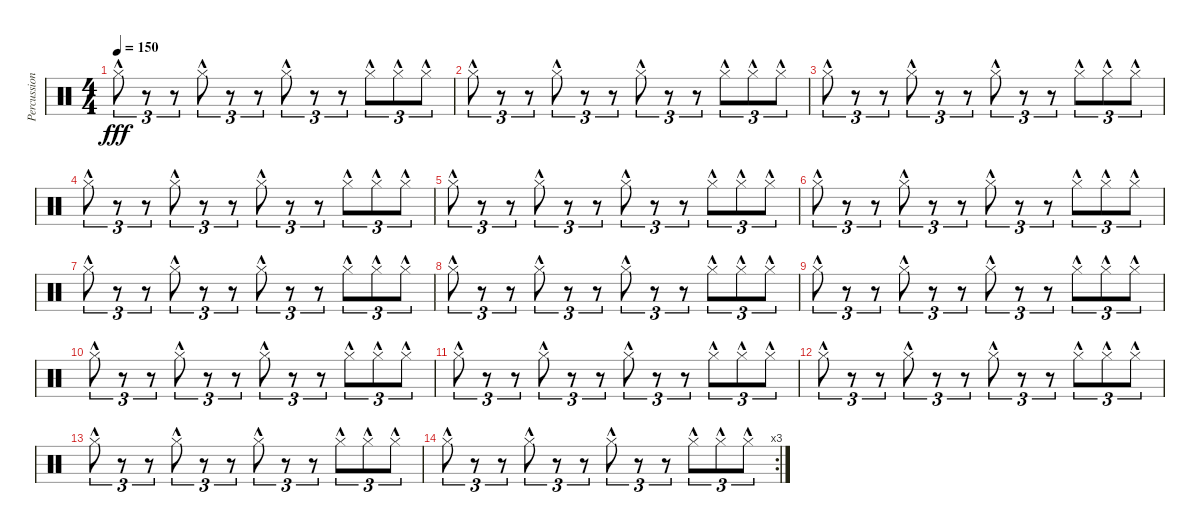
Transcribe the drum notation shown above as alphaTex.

\track ("Percussion" "Percussion") {instrument percussion}
\staff {score}
\articulation defaults
\ts (4 4)
\tempo 150
\clef neutral
\ks c "Hi-Hat (closed)"{hac}.8{tu (3 2) dy fff}
r.8{tu (3 2)} r.8{tu (3 2)} "Hi-Hat (closed)"{hac}.8{tu (3 2)} r.8{tu (3 2)} r.8{tu (3 2)} "Hi-Hat (closed)"{hac}.8{tu (3 2)} r.8{tu (3 2)} r.8{tu (3 2)} "Hi-Hat (closed)"{hac}.8{tu (3 2)} "Hi-Hat (closed)"{hac}.8{tu (3 2)} "Hi-Hat (closed)"{hac}.8{tu (3 2)} |
"Hi-Hat (closed)"{hac}.8{tu (3 2)} r.8{tu (3 2)} r.8{tu (3 2)} "Hi-Hat (closed)"{hac}.8{tu (3 2)} r.8{tu (3 2)} r.8{tu (3 2)} "Hi-Hat (closed)"{hac}.8{tu (3 2)} r.8{tu (3 2)} r.8{tu (3 2)} "Hi-Hat (closed)"{hac}.8{tu (3 2)} "Hi-Hat (closed)"{hac}.8{tu (3 2)} "Hi-Hat (closed)"{hac}.8{tu (3 2)} |
"Hi-Hat (closed)"{hac}.8{tu (3 2)} r.8{tu (3 2)} r.8{tu (3 2)} "Hi-Hat (closed)"{hac}.8{tu (3 2)} r.8{tu (3 2)} r.8{tu (3 2)} "Hi-Hat (closed)"{hac}.8{tu (3 2)} r.8{tu (3 2)} r.8{tu (3 2)} "Hi-Hat (closed)"{hac}.8{tu (3 2)} "Hi-Hat (closed)"{hac}.8{tu (3 2)} "Hi-Hat (closed)"{hac}.8{tu (3 2)} |
"Hi-Hat (closed)"{hac}.8{tu (3 2)} r.8{tu (3 2)} r.8{tu (3 2)} "Hi-Hat (closed)"{hac}.8{tu (3 2)} r.8{tu (3 2)} r.8{tu (3 2)} "Hi-Hat (closed)"{hac}.8{tu (3 2)} r.8{tu (3 2)} r.8{tu (3 2)} "Hi-Hat (closed)"{hac}.8{tu (3 2)} "Hi-Hat (closed)"{hac}.8{tu (3 2)} "Hi-Hat (closed)"{hac}.8{tu (3 2)} |
"Hi-Hat (closed)"{hac}.8{tu (3 2)} r.8{tu (3 2)} r.8{tu (3 2)} "Hi-Hat (closed)"{hac}.8{tu (3 2)} r.8{tu (3 2)} r.8{tu (3 2)} "Hi-Hat (closed)"{hac}.8{tu (3 2)} r.8{tu (3 2)} r.8{tu (3 2)} "Hi-Hat (closed)"{hac}.8{tu (3 2)} "Hi-Hat (closed)"{hac}.8{tu (3 2)} "Hi-Hat (closed)"{hac}.8{tu (3 2)} |
"Hi-Hat (closed)"{hac}.8{tu (3 2)} r.8{tu (3 2)} r.8{tu (3 2)} "Hi-Hat (closed)"{hac}.8{tu (3 2)} r.8{tu (3 2)} r.8{tu (3 2)} "Hi-Hat (closed)"{hac}.8{tu (3 2)} r.8{tu (3 2)} r.8{tu (3 2)} "Hi-Hat (closed)"{hac}.8{tu (3 2)} "Hi-Hat (closed)"{hac}.8{tu (3 2)} "Hi-Hat (closed)"{hac}.8{tu (3 2)} |
"Hi-Hat (closed)"{hac}.8{tu (3 2)} r.8{tu (3 2)} r.8{tu (3 2)} "Hi-Hat (closed)"{hac}.8{tu (3 2)} r.8{tu (3 2)} r.8{tu (3 2)} "Hi-Hat (closed)"{hac}.8{tu (3 2)} r.8{tu (3 2)} r.8{tu (3 2)} "Hi-Hat (closed)"{hac}.8{tu (3 2)} "Hi-Hat (closed)"{hac}.8{tu (3 2)} "Hi-Hat (closed)"{hac}.8{tu (3 2)} |
"Hi-Hat (closed)"{hac}.8{tu (3 2)} r.8{tu (3 2)} r.8{tu (3 2)} "Hi-Hat (closed)"{hac}.8{tu (3 2)} r.8{tu (3 2)} r.8{tu (3 2)} "Hi-Hat (closed)"{hac}.8{tu (3 2)} r.8{tu (3 2)} r.8{tu (3 2)} "Hi-Hat (closed)"{hac}.8{tu (3 2)} "Hi-Hat (closed)"{hac}.8{tu (3 2)} "Hi-Hat (closed)"{hac}.8{tu (3 2)} |
"Hi-Hat (closed)"{hac}.8{tu (3 2)} r.8{tu (3 2)} r.8{tu (3 2)} "Hi-Hat (closed)"{hac}.8{tu (3 2)} r.8{tu (3 2)} r.8{tu (3 2)} "Hi-Hat (closed)"{hac}.8{tu (3 2)} r.8{tu (3 2)} r.8{tu (3 2)} "Hi-Hat (closed)"{hac}.8{tu (3 2)} "Hi-Hat (closed)"{hac}.8{tu (3 2)} "Hi-Hat (closed)"{hac}.8{tu (3 2)} |
"Hi-Hat (closed)"{hac}.8{tu (3 2)} r.8{tu (3 2)} r.8{tu (3 2)} "Hi-Hat (closed)"{hac}.8{tu (3 2)} r.8{tu (3 2)} r.8{tu (3 2)} "Hi-Hat (closed)"{hac}.8{tu (3 2)} r.8{tu (3 2)} r.8{tu (3 2)} "Hi-Hat (closed)"{hac}.8{tu (3 2)} "Hi-Hat (closed)"{hac}.8{tu (3 2)} "Hi-Hat (closed)"{hac}.8{tu (3 2)} |
"Hi-Hat (closed)"{hac}.8{tu (3 2)} r.8{tu (3 2)} r.8{tu (3 2)} "Hi-Hat (closed)"{hac}.8{tu (3 2)} r.8{tu (3 2)} r.8{tu (3 2)} "Hi-Hat (closed)"{hac}.8{tu (3 2)} r.8{tu (3 2)} r.8{tu (3 2)} "Hi-Hat (closed)"{hac}.8{tu (3 2)} "Hi-Hat (closed)"{hac}.8{tu (3 2)} "Hi-Hat (closed)"{hac}.8{tu (3 2)} |
"Hi-Hat (closed)"{hac}.8{tu (3 2)} r.8{tu (3 2)} r.8{tu (3 2)} "Hi-Hat (closed)"{hac}.8{tu (3 2)} r.8{tu (3 2)} r.8{tu (3 2)} "Hi-Hat (closed)"{hac}.8{tu (3 2)} r.8{tu (3 2)} r.8{tu (3 2)} "Hi-Hat (closed)"{hac}.8{tu (3 2)} "Hi-Hat (closed)"{hac}.8{tu (3 2)} "Hi-Hat (closed)"{hac}.8{tu (3 2)} |
"Hi-Hat (closed)"{hac}.8{tu (3 2)} r.8{tu (3 2)} r.8{tu (3 2)} "Hi-Hat (closed)"{hac}.8{tu (3 2)} r.8{tu (3 2)} r.8{tu (3 2)} "Hi-Hat (closed)"{hac}.8{tu (3 2)} r.8{tu (3 2)} r.8{tu (3 2)} "Hi-Hat (closed)"{hac}.8{tu (3 2)} "Hi-Hat (closed)"{hac}.8{tu (3 2)} "Hi-Hat (closed)"{hac}.8{tu (3 2)} |
\rc 3 "Hi-Hat (closed)"{hac}.8{tu (3 2)}
r.8{tu (3 2)} r.8{tu (3 2)} "Hi-Hat (closed)"{hac}.8{tu (3 2)} r.8{tu (3 2)} r.8{tu (3 2)} "Hi-Hat (closed)"{hac}.8{tu (3 2)} r.8{tu (3 2)} r.8{tu (3 2)} "Hi-Hat (closed)"{hac}.8{tu (3 2)} "Hi-Hat (closed)"{hac}.8{tu (3 2)} "Hi-Hat (closed)"{hac}.8{tu (3 2)}
